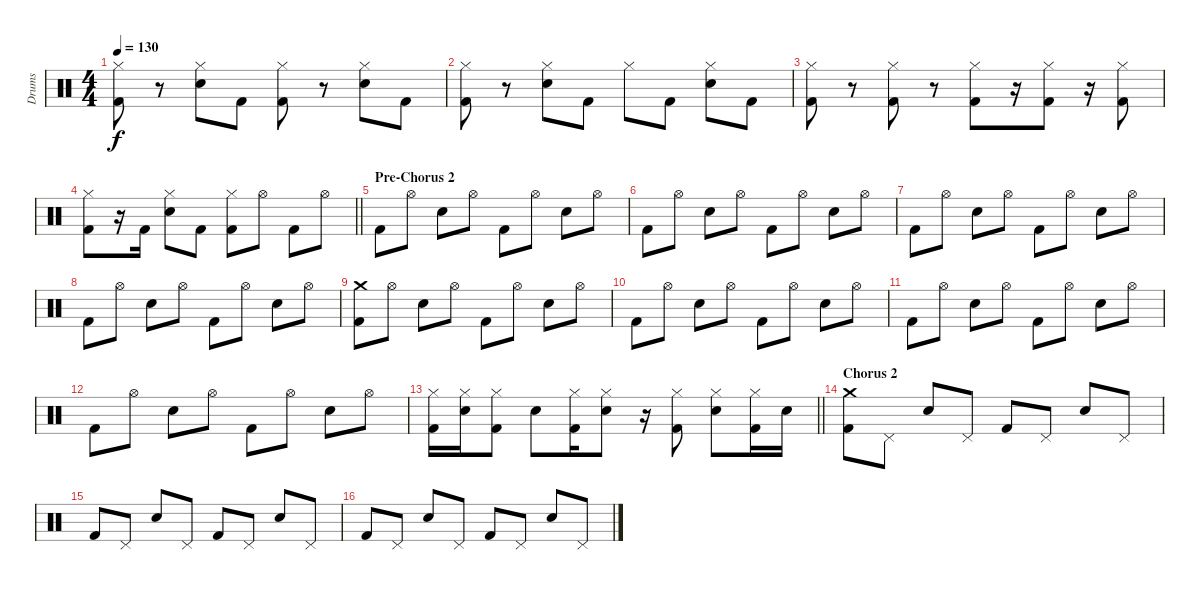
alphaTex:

\track ("Drums" "Drums") {instrument percussion}
\staff {score}
\articulation defaults
\ts (4 4)
\tempo 130
\clef neutral
\ks c
("Kick (hit) 2" "Hi-Hat (closed)").8{dy f} r.8 ("Electric Snare (hit)" "Hi-Hat (closed)").8 "Kick (hit) 2".8 ("Kick (hit) 2" "Hi-Hat (closed)").8 r.8 ("Electric Snare (hit)" "Hi-Hat (closed)").8 "Kick (hit) 2".8 |
("Kick (hit) 2" "Hi-Hat (closed)").8 r.8 ("Electric Snare (hit)" "Hi-Hat (closed)").8 "Kick (hit) 2".8 "Hi-Hat (closed)".8 "Kick (hit) 2".8 ("Electric Snare (hit)" "Hi-Hat (closed)").8 "Kick (hit) 2".8 |
("Kick (hit) 2" "Hi-Hat (closed)").8 r.8 ("Kick (hit) 2" "Hi-Hat (closed)").8 r.8 ("Kick (hit) 2" "Hi-Hat (closed)").8 r.16 ("Kick (hit) 2" "Hi-Hat (closed)").8 r.16 ("Kick (hit) 2" "Hi-Hat (closed)").8 |
\barLineRight lightlight
("Kick (hit) 2" "Hi-Hat (closed)").8 r.16 "Kick (hit) 2".16 ("Electric Snare (hit)" "Hi-Hat (closed)").8 "Kick (hit) 2".8 ("Kick (hit) 2" "Hi-Hat (closed)").8 "Hi-Hat (open)".8 "Kick (hit) 2".8 "Hi-Hat (open)".8 |
\section ("" "Pre-Chorus 2")
"Kick (hit) 2".8 "Hi-Hat (open)".8 "Electric Snare (hit)".8 "Hi-Hat (open)".8 "Kick (hit) 2".8 "Hi-Hat (open)".8 "Electric Snare (hit)".8 "Hi-Hat (open)".8 |
"Kick (hit) 2".8 "Hi-Hat (open)".8 "Electric Snare (hit)".8 "Hi-Hat (open)".8 "Kick (hit) 2".8 "Hi-Hat (open)".8 "Electric Snare (hit)".8 "Hi-Hat (open)".8 |
"Kick (hit) 2".8 "Hi-Hat (open)".8 "Electric Snare (hit)".8 "Hi-Hat (open)".8 "Kick (hit) 2".8 "Hi-Hat (open)".8 "Electric Snare (hit)".8 "Hi-Hat (open)".8 |
"Kick (hit) 2".8 "Hi-Hat (open)".8 "Electric Snare (hit)".8 "Hi-Hat (open)".8 "Kick (hit) 2".8 "Hi-Hat (open)".8 "Electric Snare (hit)".8 "Hi-Hat (open)".8 |
("Kick (hit) 2" "Crash medium (hit)").8 "Hi-Hat (open)".8 "Electric Snare (hit)".8 "Hi-Hat (open)".8 "Kick (hit) 2".8 "Hi-Hat (open)".8 "Electric Snare (hit)".8 "Hi-Hat (open)".8 |
"Kick (hit) 2".8 "Hi-Hat (open)".8 "Electric Snare (hit)".8 "Hi-Hat (open)".8 "Kick (hit) 2".8 "Hi-Hat (open)".8 "Electric Snare (hit)".8 "Hi-Hat (open)".8 |
"Kick (hit) 2".8 "Hi-Hat (open)".8 "Electric Snare (hit)".8 "Hi-Hat (open)".8 "Kick (hit) 2".8 "Hi-Hat (open)".8 "Electric Snare (hit)".8 "Hi-Hat (open)".8 |
"Kick (hit) 2".8 "Hi-Hat (open)".8 "Electric Snare (hit)".8 "Hi-Hat (open)".8 "Kick (hit) 2".8 "Hi-Hat (open)".8 "Electric Snare (hit)".8 "Hi-Hat (open)".8 |
\barLineRight lightlight
("Kick (hit) 2" "Hi-Hat (closed)").16 ("Electric Snare (hit)" "Hi-Hat (closed)").16 ("Kick (hit) 2" "Hi-Hat (closed)").8 "Electric Snare (hit)".8 ("Kick (hit) 2" "Hi-Hat (closed)").16 ("Electric Snare (hit)" "Hi-Hat (closed)").8 r.16 ("Kick (hit) 2" "Hi-Hat (closed)").8 ("Electric Snare (hit)" "Hi-Hat (closed)").8 ("Kick (hit) 2" "Hi-Hat (closed)").16 "Electric Snare (hit)".16 |
\section ("" "Chorus 2")
("Kick (hit) 2" "Crash medium (hit)").8 "Pedal Hi-Hat (hit)".8 "Electric Snare (hit)".8 "Pedal Hi-Hat (hit)".8 "Kick (hit) 2".8 "Pedal Hi-Hat (hit)".8 "Electric Snare (hit)".8 "Pedal Hi-Hat (hit)".8 |
"Kick (hit) 2".8 "Pedal Hi-Hat (hit)".8 "Electric Snare (hit)".8 "Pedal Hi-Hat (hit)".8 "Kick (hit) 2".8 "Pedal Hi-Hat (hit)".8 "Electric Snare (hit)".8 "Pedal Hi-Hat (hit)".8 |
"Kick (hit) 2".8 "Pedal Hi-Hat (hit)".8 "Electric Snare (hit)".8 "Pedal Hi-Hat (hit)".8 "Kick (hit) 2".8 "Pedal Hi-Hat (hit)".8 "Electric Snare (hit)".8 "Pedal Hi-Hat (hit)".8
